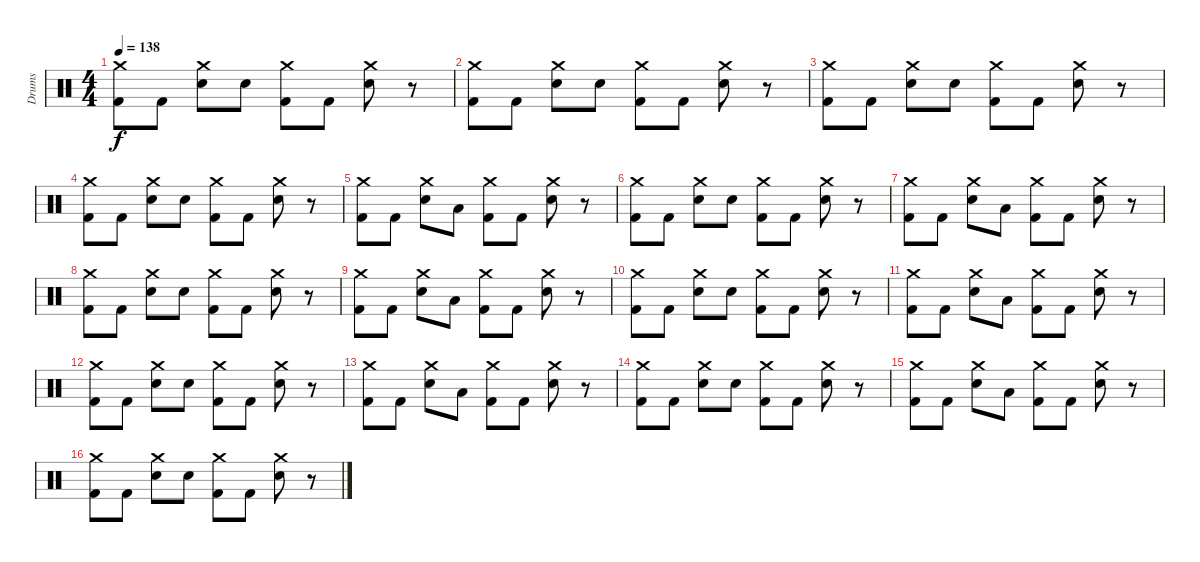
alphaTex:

\track ("Drums" "Drums") {instrument percussion}
\staff {score}
\articulation defaults
\ts (4 4)
\tempo 138
\clef neutral
\ks c
("Crash medium (hit)" "Kick (hit) 2").8{dy f} "Kick (hit) 2".8 ("Crash medium (hit)" "Electric Snare (hit)").8 "Electric Snare (hit)".8 ("Crash medium (hit)" "Kick (hit) 2").8 "Kick (hit) 2".8 ("Crash medium (hit)" "Electric Snare (hit)").8 r.8 |
("Crash medium (hit)" "Kick (hit) 2").8 "Kick (hit) 2".8 ("Crash medium (hit)" "Electric Snare (hit)").8 "Electric Snare (hit)".8 ("Crash medium (hit)" "Kick (hit) 2").8 "Kick (hit) 2".8 ("Crash medium (hit)" "Electric Snare (hit)").8 r.8 |
("Crash medium (hit)" "Kick (hit) 2").8 "Kick (hit) 2".8 ("Crash medium (hit)" "Electric Snare (hit)").8 "Electric Snare (hit)".8 ("Crash medium (hit)" "Kick (hit) 2").8 "Kick (hit) 2".8 ("Crash medium (hit)" "Electric Snare (hit)").8 r.8 |
("Crash medium (hit)" "Kick (hit) 2").8 "Kick (hit) 2".8 ("Crash medium (hit)" "Electric Snare (hit)").8 "Electric Snare (hit)".8 ("Crash medium (hit)" "Kick (hit) 2").8 "Kick (hit) 2".8 ("Crash medium (hit)" "Electric Snare (hit)").8 r.8 |
("Crash medium (hit)" "Kick (hit) 2").8 "Kick (hit) 2".8 ("Crash medium (hit)" "Electric Snare (hit)").8 "Low Tom (hit)".8 ("Crash medium (hit)" "Kick (hit) 2").8 "Kick (hit) 2".8 ("Crash medium (hit)" "Electric Snare (hit)").8 r.8 |
("Crash medium (hit)" "Kick (hit) 2").8 "Kick (hit) 2".8 ("Crash medium (hit)" "Electric Snare (hit)").8 "Electric Snare (hit)".8 ("Crash medium (hit)" "Kick (hit) 2").8 "Kick (hit) 2".8 ("Crash medium (hit)" "Electric Snare (hit)").8 r.8 |
("Crash medium (hit)" "Kick (hit) 2").8 "Kick (hit) 2".8 ("Crash medium (hit)" "Electric Snare (hit)").8 "Low Tom (hit)".8 ("Crash medium (hit)" "Kick (hit) 2").8 "Kick (hit) 2".8 ("Crash medium (hit)" "Electric Snare (hit)").8 r.8 |
("Crash medium (hit)" "Kick (hit) 2").8 "Kick (hit) 2".8 ("Crash medium (hit)" "Electric Snare (hit)").8 "Electric Snare (hit)".8 ("Crash medium (hit)" "Kick (hit) 2").8 "Kick (hit) 2".8 ("Crash medium (hit)" "Electric Snare (hit)").8 r.8 |
("Crash medium (hit)" "Kick (hit) 2").8 "Kick (hit) 2".8 ("Crash medium (hit)" "Electric Snare (hit)").8 "Low Tom (hit)".8 ("Crash medium (hit)" "Kick (hit) 2").8 "Kick (hit) 2".8 ("Crash medium (hit)" "Electric Snare (hit)").8 r.8 |
("Crash medium (hit)" "Kick (hit) 2").8 "Kick (hit) 2".8 ("Crash medium (hit)" "Electric Snare (hit)").8 "Electric Snare (hit)".8 ("Crash medium (hit)" "Kick (hit) 2").8 "Kick (hit) 2".8 ("Crash medium (hit)" "Electric Snare (hit)").8 r.8 |
("Crash medium (hit)" "Kick (hit) 2").8 "Kick (hit) 2".8 ("Crash medium (hit)" "Electric Snare (hit)").8 "Low Tom (hit)".8 ("Crash medium (hit)" "Kick (hit) 2").8 "Kick (hit) 2".8 ("Crash medium (hit)" "Electric Snare (hit)").8 r.8 |
("Crash medium (hit)" "Kick (hit) 2").8 "Kick (hit) 2".8 ("Crash medium (hit)" "Electric Snare (hit)").8 "Electric Snare (hit)".8 ("Crash medium (hit)" "Kick (hit) 2").8 "Kick (hit) 2".8 ("Crash medium (hit)" "Electric Snare (hit)").8 r.8 |
("Crash medium (hit)" "Kick (hit) 2").8 "Kick (hit) 2".8 ("Crash medium (hit)" "Electric Snare (hit)").8 "Low Tom (hit)".8 ("Crash medium (hit)" "Kick (hit) 2").8 "Kick (hit) 2".8 ("Crash medium (hit)" "Electric Snare (hit)").8 r.8 |
("Crash medium (hit)" "Kick (hit) 2").8 "Kick (hit) 2".8 ("Crash medium (hit)" "Electric Snare (hit)").8 "Electric Snare (hit)".8 ("Crash medium (hit)" "Kick (hit) 2").8 "Kick (hit) 2".8 ("Crash medium (hit)" "Electric Snare (hit)").8 r.8 |
("Crash medium (hit)" "Kick (hit) 2").8 "Kick (hit) 2".8 ("Crash medium (hit)" "Electric Snare (hit)").8 "Low Tom (hit)".8 ("Crash medium (hit)" "Kick (hit) 2").8 "Kick (hit) 2".8 ("Crash medium (hit)" "Electric Snare (hit)").8 r.8 |
("Crash medium (hit)" "Kick (hit) 2").8 "Kick (hit) 2".8 ("Crash medium (hit)" "Electric Snare (hit)").8 "Electric Snare (hit)".8 ("Crash medium (hit)" "Kick (hit) 2").8 "Kick (hit) 2".8 ("Crash medium (hit)" "Electric Snare (hit)").8 r.8
